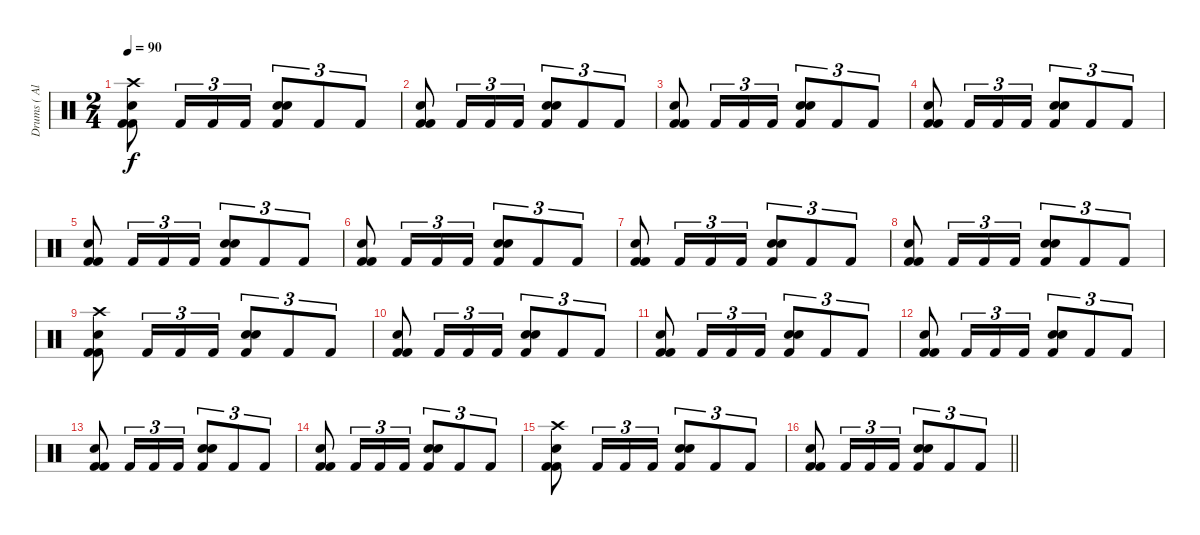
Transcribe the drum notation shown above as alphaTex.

\track ("Drums ( Alex Holzwarth)" "Drums ( Al") {instrument percussion}
\staff {score}
\articulation defaults
\ts (2 4)
\tempo 90
\clef neutral
\ks c
("Crash high (hit)" "Snare (hit) 2" "Kick (hit) 2" "Kick (hit) 2").8{dy f} "Kick (hit) 2".16{tu (3 2)} "Kick (hit) 2".16{tu (3 2)} "Kick (hit) 2".16{tu (3 2)} ("Electric Snare (hit)" "Snare (hit) 2" "Kick (hit) 2").8{tu (3 2)} "Kick (hit) 2".8{tu (3 2)} "Kick (hit) 2".8{tu (3 2)} |
("Snare (hit) 2" "Kick (hit) 2" "Kick (hit) 2").8 "Kick (hit) 2".16{tu (3 2)} "Kick (hit) 2".16{tu (3 2)} "Kick (hit) 2".16{tu (3 2)} ("Electric Snare (hit)" "Snare (hit) 2" "Kick (hit) 2").8{tu (3 2)} "Kick (hit) 2".8{tu (3 2)} "Kick (hit) 2".8{tu (3 2)} |
("Snare (hit) 2" "Kick (hit) 2" "Kick (hit) 2").8 "Kick (hit) 2".16{tu (3 2)} "Kick (hit) 2".16{tu (3 2)} "Kick (hit) 2".16{tu (3 2)} ("Electric Snare (hit)" "Snare (hit) 2" "Kick (hit) 2").8{tu (3 2)} "Kick (hit) 2".8{tu (3 2)} "Kick (hit) 2".8{tu (3 2)} |
("Snare (hit) 2" "Kick (hit) 2" "Kick (hit) 2").8 "Kick (hit) 2".16{tu (3 2)} "Kick (hit) 2".16{tu (3 2)} "Kick (hit) 2".16{tu (3 2)} ("Electric Snare (hit)" "Snare (hit) 2" "Kick (hit) 2").8{tu (3 2)} "Kick (hit) 2".8{tu (3 2)} "Kick (hit) 2".8{tu (3 2)} |
("Snare (hit) 2" "Kick (hit) 2" "Kick (hit) 2").8 "Kick (hit) 2".16{tu (3 2)} "Kick (hit) 2".16{tu (3 2)} "Kick (hit) 2".16{tu (3 2)} ("Electric Snare (hit)" "Snare (hit) 2" "Kick (hit) 2").8{tu (3 2)} "Kick (hit) 2".8{tu (3 2)} "Kick (hit) 2".8{tu (3 2)} |
("Snare (hit) 2" "Kick (hit) 2" "Kick (hit) 2").8 "Kick (hit) 2".16{tu (3 2)} "Kick (hit) 2".16{tu (3 2)} "Kick (hit) 2".16{tu (3 2)} ("Electric Snare (hit)" "Snare (hit) 2" "Kick (hit) 2").8{tu (3 2)} "Kick (hit) 2".8{tu (3 2)} "Kick (hit) 2".8{tu (3 2)} |
("Snare (hit) 2" "Kick (hit) 2" "Kick (hit) 2").8 "Kick (hit) 2".16{tu (3 2)} "Kick (hit) 2".16{tu (3 2)} "Kick (hit) 2".16{tu (3 2)} ("Electric Snare (hit)" "Snare (hit) 2" "Kick (hit) 2").8{tu (3 2)} "Kick (hit) 2".8{tu (3 2)} "Kick (hit) 2".8{tu (3 2)} |
("Snare (hit) 2" "Kick (hit) 2" "Kick (hit) 2").8 "Kick (hit) 2".16{tu (3 2)} "Kick (hit) 2".16{tu (3 2)} "Kick (hit) 2".16{tu (3 2)} ("Electric Snare (hit)" "Snare (hit) 2" "Kick (hit) 2").8{tu (3 2)} "Kick (hit) 2".8{tu (3 2)} "Kick (hit) 2".8{tu (3 2)} |
("Crash high (hit)" "Snare (hit) 2" "Kick (hit) 2" "Kick (hit) 2").8 "Kick (hit) 2".16{tu (3 2)} "Kick (hit) 2".16{tu (3 2)} "Kick (hit) 2".16{tu (3 2)} ("Electric Snare (hit)" "Snare (hit) 2" "Kick (hit) 2").8{tu (3 2)} "Kick (hit) 2".8{tu (3 2)} "Kick (hit) 2".8{tu (3 2)} |
("Snare (hit) 2" "Kick (hit) 2" "Kick (hit) 2").8 "Kick (hit) 2".16{tu (3 2)} "Kick (hit) 2".16{tu (3 2)} "Kick (hit) 2".16{tu (3 2)} ("Electric Snare (hit)" "Snare (hit) 2" "Kick (hit) 2").8{tu (3 2)} "Kick (hit) 2".8{tu (3 2)} "Kick (hit) 2".8{tu (3 2)} |
("Snare (hit) 2" "Kick (hit) 2" "Kick (hit) 2").8 "Kick (hit) 2".16{tu (3 2)} "Kick (hit) 2".16{tu (3 2)} "Kick (hit) 2".16{tu (3 2)} ("Electric Snare (hit)" "Snare (hit) 2" "Kick (hit) 2").8{tu (3 2)} "Kick (hit) 2".8{tu (3 2)} "Kick (hit) 2".8{tu (3 2)} |
("Snare (hit) 2" "Kick (hit) 2" "Kick (hit) 2").8 "Kick (hit) 2".16{tu (3 2)} "Kick (hit) 2".16{tu (3 2)} "Kick (hit) 2".16{tu (3 2)} ("Electric Snare (hit)" "Snare (hit) 2" "Kick (hit) 2").8{tu (3 2)} "Kick (hit) 2".8{tu (3 2)} "Kick (hit) 2".8{tu (3 2)} |
("Snare (hit) 2" "Kick (hit) 2" "Kick (hit) 2").8 "Kick (hit) 2".16{tu (3 2)} "Kick (hit) 2".16{tu (3 2)} "Kick (hit) 2".16{tu (3 2)} ("Electric Snare (hit)" "Snare (hit) 2" "Kick (hit) 2").8{tu (3 2)} "Kick (hit) 2".8{tu (3 2)} "Kick (hit) 2".8{tu (3 2)} |
("Snare (hit) 2" "Kick (hit) 2" "Kick (hit) 2").8 "Kick (hit) 2".16{tu (3 2)} "Kick (hit) 2".16{tu (3 2)} "Kick (hit) 2".16{tu (3 2)} ("Electric Snare (hit)" "Snare (hit) 2" "Kick (hit) 2").8{tu (3 2)} "Kick (hit) 2".8{tu (3 2)} "Kick (hit) 2".8{tu (3 2)} |
("Crash high (hit)" "Snare (hit) 2" "Kick (hit) 2" "Kick (hit) 2").8 "Kick (hit) 2".16{tu (3 2)} "Kick (hit) 2".16{tu (3 2)} "Kick (hit) 2".16{tu (3 2)} ("Electric Snare (hit)" "Snare (hit) 2" "Kick (hit) 2").8{tu (3 2)} "Kick (hit) 2".8{tu (3 2)} "Kick (hit) 2".8{tu (3 2)} |
\barLineRight lightlight
("Snare (hit) 2" "Kick (hit) 2" "Kick (hit) 2").8 "Kick (hit) 2".16{tu (3 2)} "Kick (hit) 2".16{tu (3 2)} "Kick (hit) 2".16{tu (3 2)} ("Electric Snare (hit)" "Snare (hit) 2" "Kick (hit) 2").8{tu (3 2)} "Kick (hit) 2".8{tu (3 2)} "Kick (hit) 2".8{tu (3 2)}
